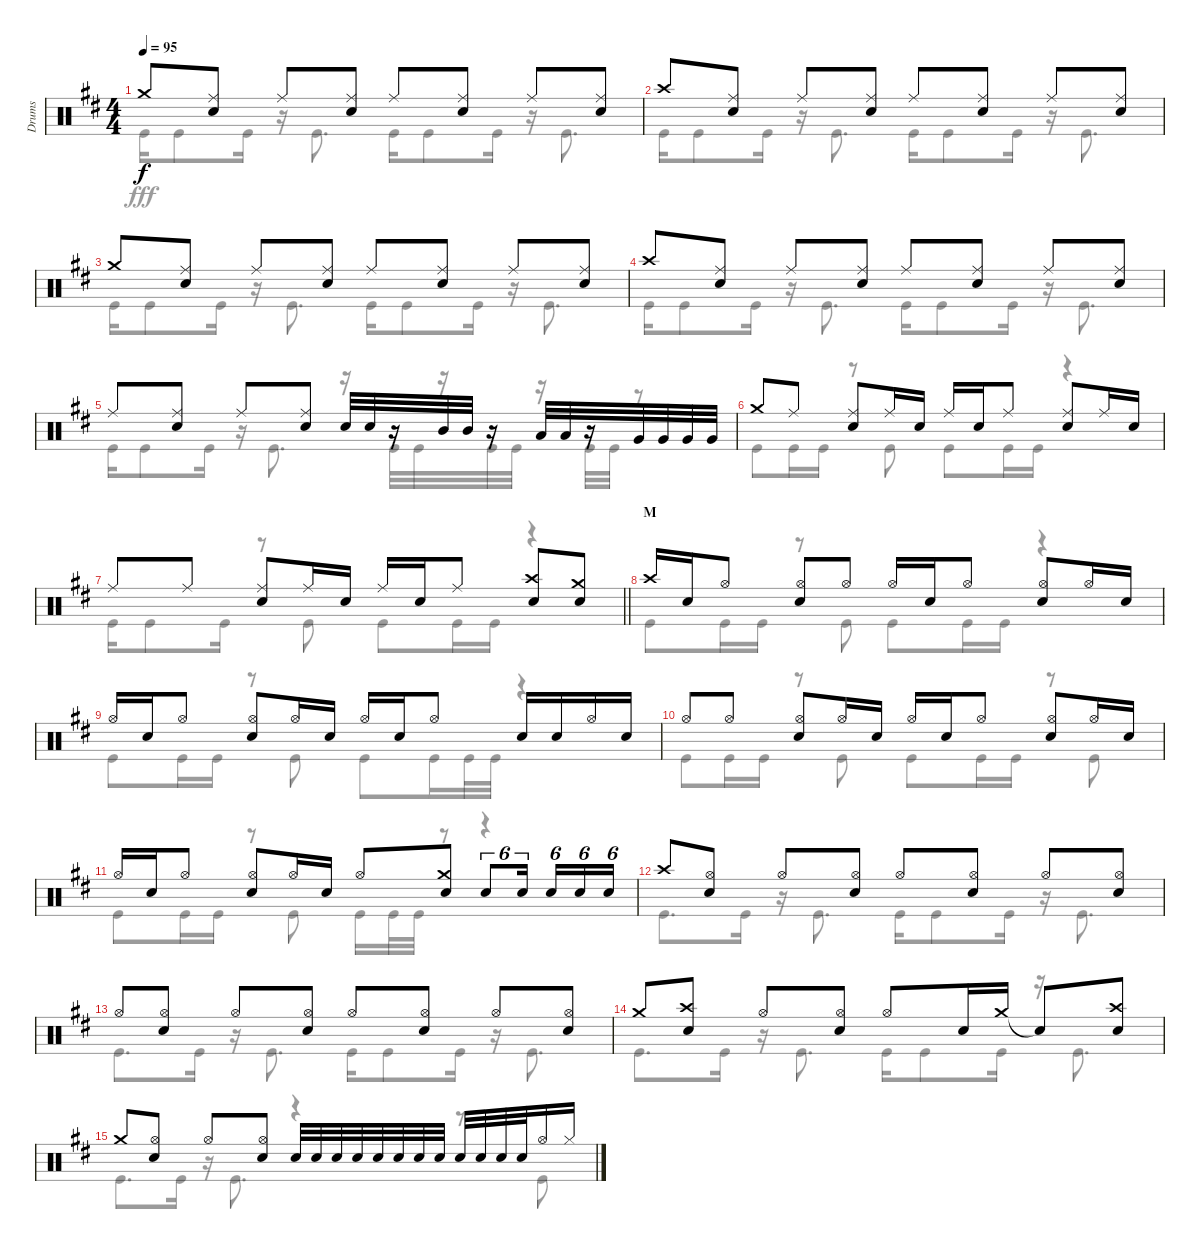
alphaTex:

\track ("Drums" "Drums") {instrument percussion}
\staff {score}
\articulation defaults
\voice
\ts (4 4)
\tempo 95
\clef neutral
\ks d "Crash medium (hit)".8{dy f}
("Ride (middle)" "Snare (hit) 2").8 "Ride (middle)".8 ("Ride (middle)" "Snare (hit) 2").8 "Ride (middle)".8 ("Ride (middle)" "Snare (hit) 2").8 "Ride (middle)".8 ("Ride (middle)" "Snare (hit) 2").8 |
"Crash high (hit)".8 ("Ride (middle)" "Snare (hit) 2").8 "Ride (middle)".8 ("Ride (middle)" "Snare (hit) 2").8 "Ride (middle)".8 ("Ride (middle)" "Snare (hit) 2").8 "Ride (middle)".8 ("Ride (middle)" "Snare (hit) 2").8 |
"Crash medium (hit)".8 ("Ride (middle)" "Snare (hit) 2").8 "Ride (middle)".8 ("Ride (middle)" "Snare (hit) 2").8 "Ride (middle)".8 ("Ride (middle)" "Snare (hit) 2").8 "Ride (middle)".8 ("Ride (middle)" "Snare (hit) 2").8 |
"Crash high (hit)".8 ("Ride (middle)" "Snare (hit) 2").8 "Ride (middle)".8 ("Ride (middle)" "Snare (hit) 2").8 "Ride (middle)".8 ("Ride (middle)" "Snare (hit) 2").8 "Ride (middle)".8 ("Ride (middle)" "Snare (hit) 2").8 |
"Ride (middle)".8 ("Ride (middle)" "Snare (hit) 2").8 "Ride (middle)".8 ("Ride (middle)" "Snare (hit) 2").8 "Snare (hit) 2".32 "Snare (hit) 2".32 r.16 "Mid Tom (hit)".32 "Mid Tom (hit)".32 r.16 "Low Tom (hit)".32 "Low Tom (hit)".32 r.16 "Very Low Tom (hit)".32 "Very Low Tom (hit)".32 "Very Low Tom (hit)".32 "Very Low Tom (hit)".32 |
"Crash medium (hit)".8 "Ride (middle)".8 ("Ride (middle)" "Snare (hit) 2").8 "Ride (middle)".16 "Snare (hit) 2".16 "Ride (middle)".16 "Snare (hit) 2".16 "Ride (middle)".8 ("Ride (middle)" "Snare (hit) 2").8 "Ride (middle)".16 "Snare (hit) 2".16 |
\barLineRight lightlight "Ride (middle)".8 "Ride (middle)".8
("Ride (middle)" "Snare (hit) 2").8 "Ride (middle)".16 "Snare (hit) 2".16 "Ride (middle)".16 "Snare (hit) 2".16 "Ride (middle)".8 ("Crash high (hit)" "Snare (hit) 2").8 ("Crash medium (hit)" "Snare (hit) 2").8 |
\section ("" "M")
"Crash high (hit)".16 "Snare (hit) 2".16 "Hi-Hat (open)".8 ("Hi-Hat (open)" "Snare (hit) 2").8 "Hi-Hat (open)".8 "Hi-Hat (open)".16 "Snare (hit) 2".16 "Hi-Hat (open)".8 ("Hi-Hat (open)" "Snare (hit) 2").8 "Hi-Hat (open)".16 "Snare (hit) 2".16 |
"Hi-Hat (open)".16 "Snare (hit) 2".16 "Hi-Hat (open)".8 ("Hi-Hat (open)" "Snare (hit) 2").8 "Hi-Hat (open)".16 "Snare (hit) 2".16 "Hi-Hat (open)".16 "Snare (hit) 2".16 "Hi-Hat (open)".8 "Snare (hit) 2".16 "Snare (hit) 2".16 "Hi-Hat (open)".16 "Snare (hit) 2".16 |
"Hi-Hat (open)".8 "Hi-Hat (open)".8 ("Hi-Hat (open)" "Snare (hit) 2").8 "Hi-Hat (open)".16 "Snare (hit) 2".16 "Hi-Hat (open)".16 "Snare (hit) 2".16 "Hi-Hat (open)".8 ("Hi-Hat (open)" "Snare (hit) 2").8 "Hi-Hat (open)".16 "Snare (hit) 2".16 |
"Hi-Hat (open)".16 "Snare (hit) 2".16 "Hi-Hat (open)".8 ("Hi-Hat (open)" "Snare (hit) 2").8 "Hi-Hat (open)".16 "Snare (hit) 2".16 "Hi-Hat (open)".8 ("Crash medium (hit)" "Snare (hit) 2").8 "Snare (hit) 2".8{tu (6 4)} "Snare (hit) 2".16{tu (6 4) beam splitsecondary} "Snare (hit) 2".16{tu (6 4)} "Snare (hit) 2".16{tu (6 4)} "Snare (hit) 2".16{tu (6 4)} |
"Crash high (hit)".8 ("Hi-Hat (open)" "Snare (hit) 2").8 "Hi-Hat (open)".8 ("Hi-Hat (open)" "Snare (hit) 2").8 "Hi-Hat (open)".8 ("Hi-Hat (open)" "Snare (hit) 2").8 "Hi-Hat (open)".8 ("Hi-Hat (open)" "Snare (hit) 2").8 |
"Hi-Hat (open)".8 ("Hi-Hat (open)" "Snare (hit) 2").8 "Hi-Hat (open)".8 ("Hi-Hat (open)" "Snare (hit) 2").8 "Hi-Hat (open)".8 ("Hi-Hat (open)" "Snare (hit) 2").8 "Hi-Hat (open)".8 ("Hi-Hat (open)" "Snare (hit) 2").8 |
"Crash medium (hit)".8 ("Crash high (hit)" "Snare (hit) 2").8 "Hi-Hat (open)".8 ("Hi-Hat (open)" "Snare (hit) 2").8 "Hi-Hat (open)".8 "Snare (hit) 2".16 "Crash medium (hit)".16 "Snare (hit)"{t}.8 ("Crash high (hit)" "Snare (hit) 2").8 |
"Crash medium (hit)".8 ("Hi-Hat (open)" "Snare (hit) 2").8 "Hi-Hat (open)".8 ("Hi-Hat (open)" "Snare (hit) 2").8 "Snare (hit) 2".32 "Snare (hit) 2".32 "Snare (hit) 2".32 "Snare (hit) 2".32 "Snare (hit) 2".32 "Snare (hit) 2".32 "Snare (hit) 2".32 "Snare (hit) 2".32 "Snare (hit) 2".32 "Snare (hit) 2".32 "Snare (hit) 2".32 "Snare (hit) 2".32 "Hi-Hat (open)".16 "Hi-Hat (closed)".16
\voice
\clef neutral
\ottava regular
\simile none
\ks d "Kick (hit)".16{dy fff} "Kick (hit)".8 "Kick (hit)".16
r.16 "Kick (hit)".8{d} "Kick (hit)".16 "Kick (hit)".8 "Kick (hit)".16 r.16 "Kick (hit)".8{d} |
"Kick (hit)".16 "Kick (hit)".8 "Kick (hit)".16 r.16 "Kick (hit)".8{d} "Kick (hit)".16 "Kick (hit)".8 "Kick (hit)".16 r.16 "Kick (hit)".8{d} |
"Kick (hit)".16 "Kick (hit)".8 "Kick (hit)".16 r.16 "Kick (hit)".8{d} "Kick (hit)".16 "Kick (hit)".8 "Kick (hit)".16 r.16 "Kick (hit)".8{d} |
"Kick (hit)".16 "Kick (hit)".8 "Kick (hit)".16 r.16 "Kick (hit)".8{d} "Kick (hit)".16 "Kick (hit)".8 "Kick (hit)".16 r.16 "Kick (hit)".8{d} |
"Kick (hit)".16 "Kick (hit)".8 "Kick (hit)".16 r.16 "Kick (hit)".8{d} r.16 "Kick (hit)".32 "Kick (hit)".32 r.16 "Kick (hit)".32 "Kick (hit)".32 r.16 "Kick (hit)".32 "Kick (hit)".32 r.8 |
"Kick (hit)".8 "Kick (hit)".16 "Kick (hit)".16 r.8 "Kick (hit)".8 "Kick (hit)".8 "Kick (hit)".16 "Kick (hit)".16 r.4 |
\barLineRight lightlight "Kick (hit)".16 "Kick (hit)".8 "Kick (hit)".16
r.8 "Kick (hit)".8 "Kick (hit)".8 "Kick (hit)".16 "Kick (hit)".16 r.4 |
"Kick (hit)".8 "Kick (hit)".16 "Kick (hit)".16 r.8 "Kick (hit)".8 "Kick (hit)".8 "Kick (hit)".16 "Kick (hit)".16 r.4 |
"Kick (hit)".8 "Kick (hit)".16 "Kick (hit)".16 r.8 "Kick (hit)".8 "Kick (hit)".8 "Kick (hit)".16 "Kick (hit)".32 "Kick (hit)".32 r.4 |
"Kick (hit)".8 "Kick (hit)".16 "Kick (hit)".16 r.8 "Kick (hit)".8 "Kick (hit)".8 "Kick (hit)".16 "Kick (hit)".16 r.8 "Kick (hit)".8 |
"Kick (hit)".8 "Kick (hit)".16 "Kick (hit)".16 r.8 "Kick (hit)".8 "Kick (hit)".16 "Kick (hit)".32 "Kick (hit)".32 r.8 r.4 |
"Kick (hit)".8{d} "Kick (hit)".16 r.16 "Kick (hit)".8{d} "Kick (hit)".16 "Kick (hit)".8 "Kick (hit)".16 r.16 "Kick (hit)".8{d} |
"Kick (hit)".8{d} "Kick (hit)".16 r.16 "Kick (hit)".8{d} "Kick (hit)".16 "Kick (hit)".8 "Kick (hit)".16 r.16 "Kick (hit)".8{d} |
"Kick (hit)".8{d} "Kick (hit)".16 r.16 "Kick (hit)".8{d} "Kick (hit)".16 "Kick (hit)".8 "Kick (hit)".16 r.16 "Kick (hit)".8{d} |
"Kick (hit)".8{d} "Kick (hit)".16 r.16 "Kick (hit)".8{d} r.4 r.8 "Kick (hit)".8
